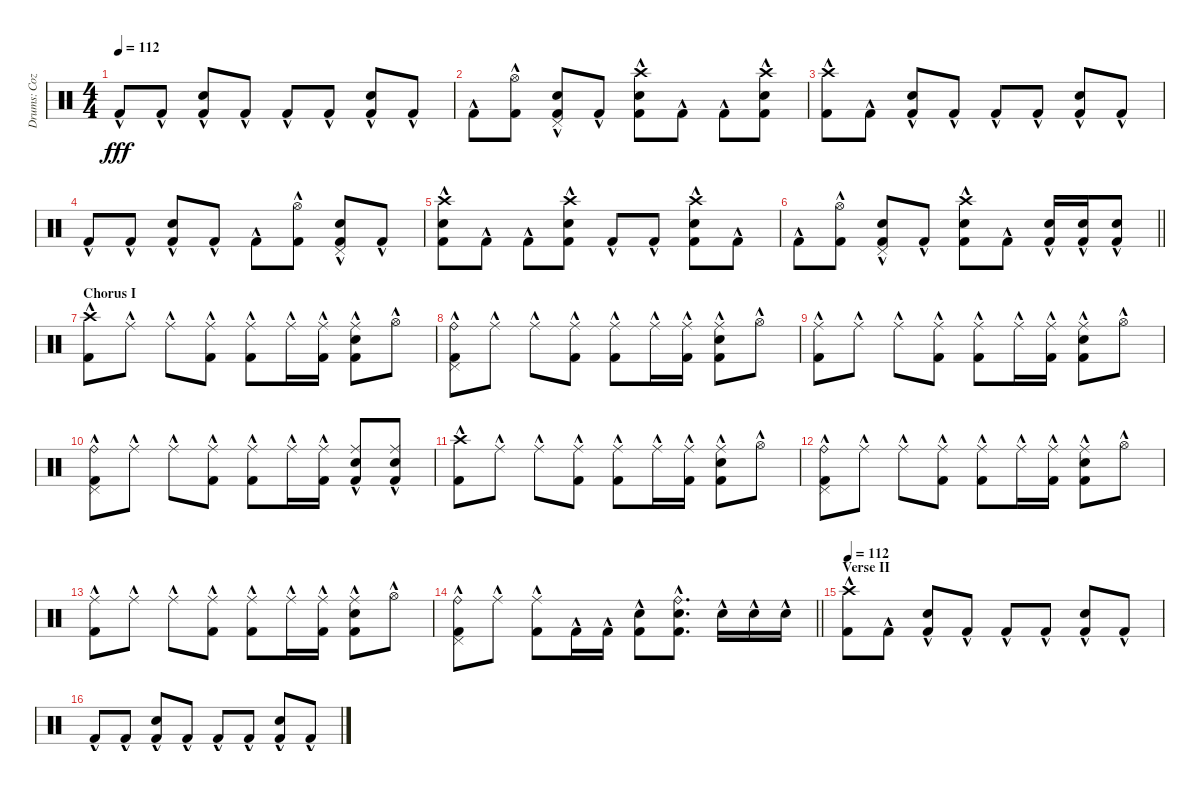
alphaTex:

\track ("Drums: Cozy" "Drums: Coz") {instrument percussion}
\staff {score}
\articulation defaults
\ts (4 4)
\tempo 112
\clef neutral
\ks c "Kick (hit) 2"{hac}.8{dy fff} "Kick (hit) 2"{hac}.8
("Snare (hit) 2"{hac} "Kick (hit) 2"{hac}).8 "Kick (hit) 2"{hac}.8 "Kick (hit) 2"{hac}.8 "Kick (hit) 2"{hac}.8 ("Snare (hit) 2"{hac} "Kick (hit) 2"{hac}).8 "Kick (hit) 2"{hac}.8 |
"Kick (hit) 2"{hac}.8 ("Hi-Hat (open)"{hac} "Kick (hit) 2"{hac}).8 ("Pedal Hi-Hat (hit)"{hac} "Snare (hit) 2"{hac} "Kick (hit) 2"{hac}).8 "Kick (hit) 2"{hac}.8 ("Crash high (hit)"{hac} "Snare (hit) 2"{hac} "Kick (hit) 2"{hac}).8 "Kick (hit) 2"{hac}.8 "Kick (hit) 2"{hac}.8 ("Crash high (hit)"{hac} "Snare (hit) 2"{hac} "Kick (hit) 2"{hac}).8 |
("Crash high (hit)"{hac} "Kick (hit) 2"{hac}).8 "Kick (hit) 2"{hac}.8 ("Snare (hit) 2"{hac} "Kick (hit) 2"{hac}).8 "Kick (hit) 2"{hac}.8 "Kick (hit) 2"{hac}.8 "Kick (hit) 2"{hac}.8 ("Snare (hit) 2"{hac} "Kick (hit) 2"{hac}).8 "Kick (hit) 2"{hac}.8 |
"Kick (hit) 2"{hac}.8 "Kick (hit) 2"{hac}.8 ("Snare (hit) 2"{hac} "Kick (hit) 2"{hac}).8 "Kick (hit) 2"{hac}.8 "Kick (hit) 2"{hac}.8 ("Hi-Hat (open)"{hac} "Kick (hit) 2"{hac}).8 ("Pedal Hi-Hat (hit)"{hac} "Snare (hit) 2"{hac} "Kick (hit) 2"{hac}).8 "Kick (hit) 2"{hac}.8 |
("Crash high (hit)"{hac} "Snare (hit) 2"{hac} "Kick (hit) 2"{hac}).8 "Kick (hit) 2"{hac}.8 "Kick (hit) 2"{hac}.8 ("Crash high (hit)"{hac} "Snare (hit) 2"{hac} "Kick (hit) 2"{hac}).8 "Kick (hit) 2"{hac}.8 "Kick (hit) 2"{hac}.8 ("Crash high (hit)"{hac} "Snare (hit) 2"{hac} "Kick (hit) 2"{hac}).8 "Kick (hit) 2"{hac}.8 |
\barLineRight lightlight "Kick (hit) 2"{hac}.8
("Hi-Hat (open)"{hac} "Kick (hit) 2"{hac}).8 ("Pedal Hi-Hat (hit)"{hac} "Snare (hit) 2"{hac} "Kick (hit) 2"{hac}).8 "Kick (hit) 2"{hac}.8 ("Crash high (hit)"{hac} "Snare (hit) 2"{hac} "Kick (hit) 2"{hac}).8 "Kick (hit) 2"{hac}.8 ("Snare (hit) 2"{hac} "Kick (hit) 2"{hac}).16 ("Snare (hit) 2"{hac} "Kick (hit) 2"{hac}).16 ("Snare (hit) 2"{hac} "Kick (hit) 2"{hac}).8 |
\section ("" "Chorus I")
("Crash high (hit)"{hac} "Kick (hit) 2"{hac}).8 "Ride (middle)"{hac}.8 "Ride (middle)"{hac}.8 ("Ride (middle)"{hac} "Kick (hit) 2"{hac}).8 ("Ride (middle)"{hac} "Kick (hit) 2"{hac}).8 "Ride (middle)"{hac}.16 ("Ride (middle)"{hac} "Kick (hit) 2"{hac}).16 ("Ride (middle)"{hac} "Electric Snare (hit)"{hac} "Kick (hit) 2"{hac}).8 "Hi-Hat (open)"{hac}.8 |
("Ride (bell)"{hac} "Pedal Hi-Hat (hit)"{hac} "Kick (hit) 2"{hac}).8 "Ride (middle)"{hac}.8 "Ride (middle)"{hac}.8 ("Ride (middle)"{hac} "Kick (hit) 2"{hac}).8 ("Ride (middle)"{hac} "Kick (hit) 2"{hac}).8 "Ride (middle)"{hac}.16 ("Ride (middle)"{hac} "Kick (hit) 2"{hac}).16 ("Ride (middle)"{hac} "Electric Snare (hit)"{hac} "Kick (hit) 2"{hac}).8 "Hi-Hat (open)"{hac}.8 |
("Ride (middle)"{hac} "Kick (hit) 2"{hac}).8 "Ride (middle)"{hac}.8 "Ride (middle)"{hac}.8 ("Ride (middle)"{hac} "Kick (hit) 2"{hac}).8 ("Ride (middle)"{hac} "Kick (hit) 2"{hac}).8 "Ride (middle)"{hac}.16 ("Ride (middle)"{hac} "Kick (hit) 2"{hac}).16 ("Ride (middle)"{hac} "Electric Snare (hit)"{hac} "Kick (hit) 2"{hac}).8 "Hi-Hat (open)"{hac}.8 |
("Ride (bell)"{hac} "Pedal Hi-Hat (hit)"{hac} "Kick (hit) 2"{hac}).8 "Ride (middle)"{hac}.8 "Ride (middle)"{hac}.8 ("Ride (middle)"{hac} "Kick (hit) 2"{hac}).8 ("Ride (middle)"{hac} "Kick (hit) 2"{hac}).8 "Ride (middle)"{hac}.16 ("Ride (middle)"{hac} "Kick (hit) 2"{hac}).16 ("Ride (middle)"{hac} "Electric Snare (hit)"{hac} "Kick (hit) 2"{hac}).8 ("Ride (middle)"{hac} "Electric Snare (hit)"{hac} "Kick (hit) 2"{hac}).8 |
("Crash high (hit)"{hac} "Kick (hit) 2"{hac}).8 "Ride (middle)"{hac}.8 "Ride (middle)"{hac}.8 ("Ride (middle)"{hac} "Kick (hit) 2"{hac}).8 ("Ride (middle)"{hac} "Kick (hit) 2"{hac}).8 "Ride (middle)"{hac}.16 ("Ride (middle)"{hac} "Kick (hit) 2"{hac}).16 ("Ride (middle)"{hac} "Electric Snare (hit)"{hac} "Kick (hit) 2"{hac}).8 "Hi-Hat (open)"{hac}.8 |
("Ride (bell)"{hac} "Pedal Hi-Hat (hit)"{hac} "Kick (hit) 2"{hac}).8 "Ride (middle)"{hac}.8 "Ride (middle)"{hac}.8 ("Ride (middle)"{hac} "Kick (hit) 2"{hac}).8 ("Ride (middle)"{hac} "Kick (hit) 2"{hac}).8 "Ride (middle)"{hac}.16 ("Ride (middle)"{hac} "Kick (hit) 2"{hac}).16 ("Ride (middle)"{hac} "Electric Snare (hit)"{hac} "Kick (hit) 2"{hac}).8 "Hi-Hat (open)"{hac}.8 |
("Ride (middle)"{hac} "Kick (hit) 2"{hac}).8 "Ride (middle)"{hac}.8 "Ride (middle)"{hac}.8 ("Ride (middle)"{hac} "Kick (hit) 2"{hac}).8 ("Ride (middle)"{hac} "Kick (hit) 2"{hac}).8 "Ride (middle)"{hac}.16 ("Ride (middle)"{hac} "Kick (hit) 2"{hac}).16 ("Ride (middle)"{hac} "Electric Snare (hit)"{hac} "Kick (hit) 2"{hac}).8 "Hi-Hat (open)"{hac}.8 |
\barLineRight lightlight
("Ride (bell)"{hac} "Pedal Hi-Hat (hit)"{hac} "Kick (hit) 2"{hac}).8 "Ride (middle)"{hac}.8 ("Ride (middle)"{hac} "Kick (hit) 2"{hac}).8 "Kick (hit) 2"{hac}.16 "Kick (hit) 2"{hac}.16 ("Snare (hit) 2"{hac} "Kick (hit) 2"{hac}).8 ("Ride (bell)"{hac} "Snare (hit) 2"{hac} "Kick (hit) 2"{hac}).8{d} "Snare (hit) 2"{hac}.16 "Snare (hit) 2"{hac}.16 "Snare (hit) 2"{hac}.16 |
\section ("" "Verse II")
\tempo 112
("Crash high (hit)"{hac} "Kick (hit) 2"{hac}).8 "Kick (hit) 2"{hac}.8 ("Snare (hit) 2"{hac} "Kick (hit) 2"{hac}).8 "Kick (hit) 2"{hac}.8 "Kick (hit) 2"{hac}.8 "Kick (hit) 2"{hac}.8 ("Snare (hit) 2"{hac} "Kick (hit) 2"{hac}).8 "Kick (hit) 2"{hac}.8 |
"Kick (hit) 2"{hac}.8 "Kick (hit) 2"{hac}.8 ("Snare (hit) 2"{hac} "Kick (hit) 2"{hac}).8 "Kick (hit) 2"{hac}.8 "Kick (hit) 2"{hac}.8 "Kick (hit) 2"{hac}.8 ("Snare (hit) 2"{hac} "Kick (hit) 2"{hac}).8 "Kick (hit) 2"{hac}.8
